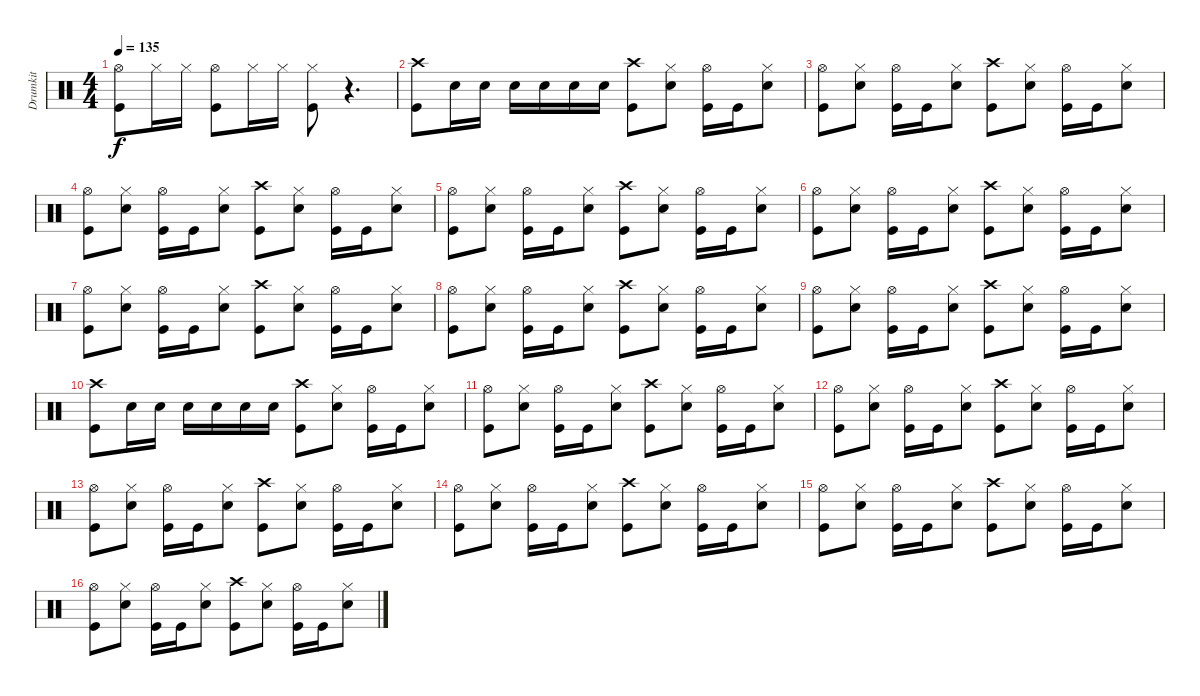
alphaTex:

\track ("Drumkit" "Drumkit") {instrument percussion}
\staff {score}
\articulation defaults
\ts (4 4)
\tempo 135
\clef neutral
\ks c
("Hi-Hat (open)" "Kick (hit)").8{dy f} "Hi-Hat (closed)".16 "Hi-Hat (closed)".16 ("Hi-Hat (open)" "Kick (hit)").8 "Hi-Hat (closed)".16 "Hi-Hat (closed)".16 ("Hi-Hat (closed)" "Kick (hit)").8 r.4{d} |
("Crash high (hit)" "Kick (hit)").8 "Snare (hit) 2".16 "Snare (hit) 2".16 "Snare (hit) 2".16 "Snare (hit) 2".16 "Snare (hit) 2".16 "Snare (hit) 2".16 ("Crash high (hit)" "Kick (hit)").8 ("Hi-Hat (closed)" "Snare (hit) 2").8 ("Hi-Hat (open)" "Kick (hit)").16 "Kick (hit)".16 ("Snare (hit) 2" "Hi-Hat (closed)").8 |
("Hi-Hat (open)" "Kick (hit)").8 ("Snare (hit) 2" "Hi-Hat (closed)").8 ("Hi-Hat (open)" "Kick (hit)").16 "Kick (hit)".16 ("Hi-Hat (closed)" "Snare (hit) 2").8 ("Crash high (hit)" "Kick (hit)").8 ("Hi-Hat (closed)" "Snare (hit) 2").8 ("Hi-Hat (open)" "Kick (hit)").16 "Kick (hit)".16 ("Snare (hit) 2" "Hi-Hat (closed)").8 |
("Hi-Hat (open)" "Kick (hit)").8 ("Snare (hit) 2" "Hi-Hat (closed)").8 ("Hi-Hat (open)" "Kick (hit)").16 "Kick (hit)".16 ("Hi-Hat (closed)" "Snare (hit) 2").8 ("Crash high (hit)" "Kick (hit)").8 ("Hi-Hat (closed)" "Snare (hit) 2").8 ("Hi-Hat (open)" "Kick (hit)").16 "Kick (hit)".16 ("Snare (hit) 2" "Hi-Hat (closed)").8 |
("Hi-Hat (open)" "Kick (hit)").8 ("Snare (hit) 2" "Hi-Hat (closed)").8 ("Hi-Hat (open)" "Kick (hit)").16 "Kick (hit)".16 ("Hi-Hat (closed)" "Snare (hit) 2").8 ("Crash high (hit)" "Kick (hit)").8 ("Hi-Hat (closed)" "Snare (hit) 2").8 ("Hi-Hat (open)" "Kick (hit)").16 "Kick (hit)".16 ("Snare (hit) 2" "Hi-Hat (closed)").8 |
("Hi-Hat (open)" "Kick (hit)").8 ("Snare (hit) 2" "Hi-Hat (closed)").8 ("Hi-Hat (open)" "Kick (hit)").16 "Kick (hit)".16 ("Hi-Hat (closed)" "Snare (hit) 2").8 ("Crash high (hit)" "Kick (hit)").8 ("Hi-Hat (closed)" "Snare (hit) 2").8 ("Hi-Hat (open)" "Kick (hit)").16 "Kick (hit)".16 ("Snare (hit) 2" "Hi-Hat (closed)").8 |
("Hi-Hat (open)" "Kick (hit)").8 ("Snare (hit) 2" "Hi-Hat (closed)").8 ("Hi-Hat (open)" "Kick (hit)").16 "Kick (hit)".16 ("Hi-Hat (closed)" "Snare (hit) 2").8 ("Crash high (hit)" "Kick (hit)").8 ("Hi-Hat (closed)" "Snare (hit) 2").8 ("Hi-Hat (open)" "Kick (hit)").16 "Kick (hit)".16 ("Snare (hit) 2" "Hi-Hat (closed)").8 |
("Hi-Hat (open)" "Kick (hit)").8 ("Snare (hit) 2" "Hi-Hat (closed)").8 ("Hi-Hat (open)" "Kick (hit)").16 "Kick (hit)".16 ("Hi-Hat (closed)" "Snare (hit) 2").8 ("Crash high (hit)" "Kick (hit)").8 ("Hi-Hat (closed)" "Snare (hit) 2").8 ("Hi-Hat (open)" "Kick (hit)").16 "Kick (hit)".16 ("Snare (hit) 2" "Hi-Hat (closed)").8 |
("Hi-Hat (open)" "Kick (hit)").8 ("Snare (hit) 2" "Hi-Hat (closed)").8 ("Hi-Hat (open)" "Kick (hit)").16 "Kick (hit)".16 ("Hi-Hat (closed)" "Snare (hit) 2").8 ("Crash high (hit)" "Kick (hit)").8 ("Hi-Hat (closed)" "Snare (hit) 2").8 ("Hi-Hat (open)" "Kick (hit)").16 "Kick (hit)".16 ("Snare (hit) 2" "Hi-Hat (closed)").8 |
("Kick (hit)" "Crash high (hit)").8 "Snare (hit) 2".16 "Snare (hit) 2".16 "Snare (hit) 2".16 "Snare (hit) 2".16 "Snare (hit) 2".16 "Snare (hit) 2".16 ("Crash high (hit)" "Kick (hit)").8 ("Hi-Hat (closed)" "Snare (hit) 2").8 ("Hi-Hat (open)" "Kick (hit)").16 "Kick (hit)".16 ("Snare (hit) 2" "Hi-Hat (closed)").8 |
("Hi-Hat (open)" "Kick (hit)").8 ("Snare (hit) 2" "Hi-Hat (closed)").8 ("Hi-Hat (open)" "Kick (hit)").16 "Kick (hit)".16 ("Hi-Hat (closed)" "Snare (hit) 2").8 ("Crash high (hit)" "Kick (hit)").8 ("Hi-Hat (closed)" "Snare (hit) 2").8 ("Hi-Hat (open)" "Kick (hit)").16 "Kick (hit)".16 ("Snare (hit) 2" "Hi-Hat (closed)").8 |
("Hi-Hat (open)" "Kick (hit)").8 ("Snare (hit) 2" "Hi-Hat (closed)").8 ("Hi-Hat (open)" "Kick (hit)").16 "Kick (hit)".16 ("Hi-Hat (closed)" "Snare (hit) 2").8 ("Crash high (hit)" "Kick (hit)").8 ("Hi-Hat (closed)" "Snare (hit) 2").8 ("Hi-Hat (open)" "Kick (hit)").16 "Kick (hit)".16 ("Snare (hit) 2" "Hi-Hat (closed)").8 |
("Hi-Hat (open)" "Kick (hit)").8 ("Snare (hit) 2" "Hi-Hat (closed)").8 ("Hi-Hat (open)" "Kick (hit)").16 "Kick (hit)".16 ("Hi-Hat (closed)" "Snare (hit) 2").8 ("Crash high (hit)" "Kick (hit)").8 ("Hi-Hat (closed)" "Snare (hit) 2").8 ("Hi-Hat (open)" "Kick (hit)").16 "Kick (hit)".16 ("Snare (hit) 2" "Hi-Hat (closed)").8 |
("Hi-Hat (open)" "Kick (hit)").8 ("Snare (hit) 2" "Hi-Hat (closed)").8 ("Hi-Hat (open)" "Kick (hit)").16 "Kick (hit)".16 ("Hi-Hat (closed)" "Snare (hit) 2").8 ("Crash high (hit)" "Kick (hit)").8 ("Hi-Hat (closed)" "Snare (hit) 2").8 ("Hi-Hat (open)" "Kick (hit)").16 "Kick (hit)".16 ("Snare (hit) 2" "Hi-Hat (closed)").8 |
("Hi-Hat (open)" "Kick (hit)").8 ("Snare (hit) 2" "Hi-Hat (closed)").8 ("Hi-Hat (open)" "Kick (hit)").16 "Kick (hit)".16 ("Hi-Hat (closed)" "Snare (hit) 2").8 ("Crash high (hit)" "Kick (hit)").8 ("Hi-Hat (closed)" "Snare (hit) 2").8 ("Hi-Hat (open)" "Kick (hit)").16 "Kick (hit)".16 ("Snare (hit) 2" "Hi-Hat (closed)").8 |
("Hi-Hat (open)" "Kick (hit)").8 ("Snare (hit) 2" "Hi-Hat (closed)").8 ("Hi-Hat (open)" "Kick (hit)").16 "Kick (hit)".16 ("Hi-Hat (closed)" "Snare (hit) 2").8 ("Crash high (hit)" "Kick (hit)").8 ("Hi-Hat (closed)" "Snare (hit) 2").8 ("Hi-Hat (open)" "Kick (hit)").16 "Kick (hit)".16 ("Snare (hit) 2" "Hi-Hat (closed)").8
